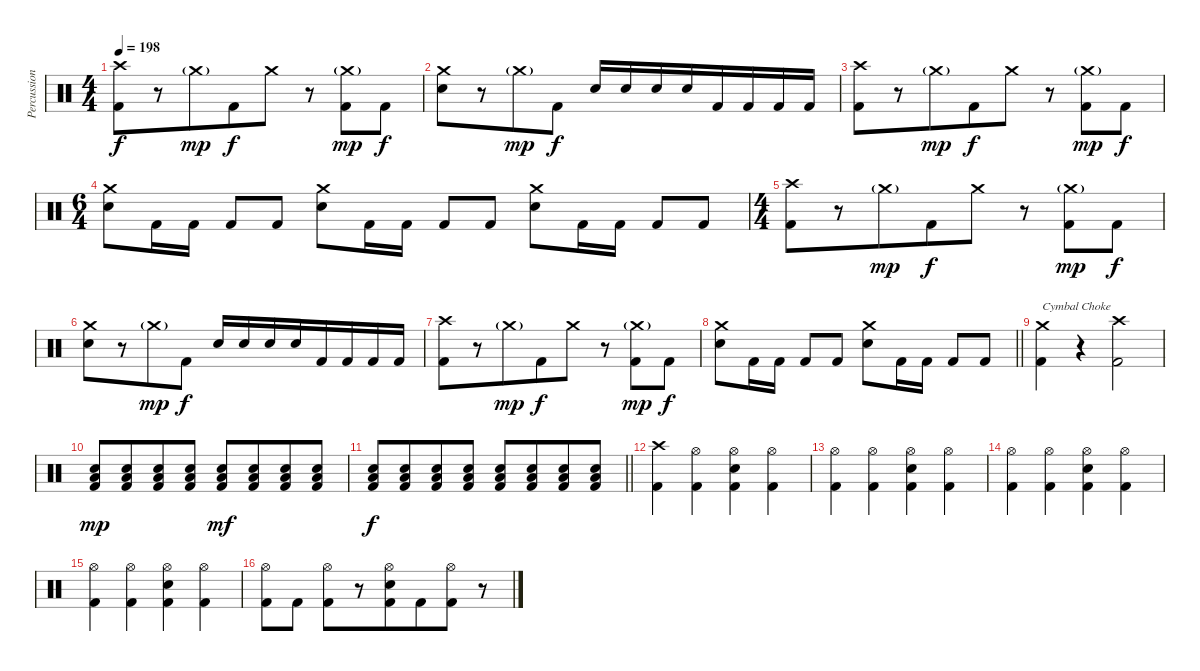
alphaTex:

\track ("Percussion" "Percussion") {instrument percussion}
\staff {score}
\articulation defaults
\ts (4 4)
\section ("" "")
\tempo 198
\clef neutral
\ks c
("Crash high (hit)" "Kick (hit) 2").8{dy f beam merge} r.8 "Crash medium (hit)"{g}.8{dy mp beam merge} "Kick (hit) 2".8{dy f beam merge} "Crash medium (hit)".8 r.8 ("Crash medium (hit)"{g} "Kick (hit) 2").8{dy mp} "Kick (hit) 2".8{dy f} |
("Crash medium (hit)" "Electric Snare (hit)").8{beam merge} r.8 "Crash medium (hit)"{g}.8{dy mp beam merge} "Kick (hit) 2".8{dy f} "Electric Snare (hit)".16 "Electric Snare (hit)".16{beam merge} "Electric Snare (hit)".16 "Electric Snare (hit)".16{beam merge} "Kick (hit) 2".16 "Kick (hit) 2".16 "Kick (hit) 2".16 "Kick (hit) 2".16 |
("Crash high (hit)" "Kick (hit) 2").8{beam merge} r.8 "Crash medium (hit)"{g}.8{dy mp beam merge} "Kick (hit) 2".8{dy f beam merge} "Crash medium (hit)".8 r.8 ("Crash medium (hit)"{g} "Kick (hit) 2").8{dy mp} "Kick (hit) 2".8{dy f} |
\ts (6 4)
("Crash medium (hit)" "Electric Snare (hit)").8 "Kick (hit) 2".16 "Kick (hit) 2".16 "Kick (hit) 2".8 "Kick (hit) 2".8 ("Crash medium (hit)" "Electric Snare (hit)").8 "Kick (hit) 2".16 "Kick (hit) 2".16 "Kick (hit) 2".8 "Kick (hit) 2".8 ("Crash medium (hit)" "Electric Snare (hit)").8 "Kick (hit) 2".16 "Kick (hit) 2".16 "Kick (hit) 2".8 "Kick (hit) 2".8 |
\ts (4 4)
("Crash high (hit)" "Kick (hit) 2").8{beam merge} r.8 "Crash medium (hit)"{g}.8{dy mp beam merge} "Kick (hit) 2".8{dy f beam merge} "Crash medium (hit)".8 r.8 ("Crash medium (hit)"{g} "Kick (hit) 2").8{dy mp} "Kick (hit) 2".8{dy f} |
("Crash medium (hit)" "Electric Snare (hit)").8{beam merge} r.8 "Crash medium (hit)"{g}.8{dy mp beam merge} "Kick (hit) 2".8{dy f} "Electric Snare (hit)".16 "Electric Snare (hit)".16{beam merge} "Electric Snare (hit)".16 "Electric Snare (hit)".16{beam merge} "Kick (hit) 2".16 "Kick (hit) 2".16 "Kick (hit) 2".16 "Kick (hit) 2".16 |
("Crash high (hit)" "Kick (hit) 2").8{beam merge} r.8 "Crash medium (hit)"{g}.8{dy mp beam merge} "Kick (hit) 2".8{dy f beam merge} "Crash medium (hit)".8 r.8 ("Crash medium (hit)"{g} "Kick (hit) 2").8{dy mp} "Kick (hit) 2".8{dy f} |
\barLineRight lightlight
("Crash medium (hit)" "Electric Snare (hit)").8 "Kick (hit) 2".16 "Kick (hit) 2".16 "Kick (hit) 2".8 "Kick (hit) 2".8 ("Crash medium (hit)" "Electric Snare (hit)").8 "Kick (hit) 2".16 "Kick (hit) 2".16 "Kick (hit) 2".8 "Kick (hit) 2".8 |
\section ("" "")
("Crash medium (hit)" "Kick (hit) 2").4{txt "Cymbal Choke" volume 0} r.4 ("Crash high (hit)" "Kick (hit) 2").2{volume 14} |
("Electric Snare (hit)" "Low Floor Tom (hit)" "Kick (hit) 2").8{dy mp beam merge} ("Electric Snare (hit)" "Low Floor Tom (hit)" "Kick (hit) 2").8{beam merge} ("Electric Snare (hit)" "Low Floor Tom (hit)" "Kick (hit) 2").8 ("Electric Snare (hit)" "Low Floor Tom (hit)" "Kick (hit) 2").8 ("Electric Snare (hit)" "Low Floor Tom (hit)" "Kick (hit) 2").8{dy mf} ("Electric Snare (hit)" "Low Floor Tom (hit)" "Kick (hit) 2").8{beam merge} ("Electric Snare (hit)" "Low Floor Tom (hit)" "Kick (hit) 2").8{beam merge} ("Electric Snare (hit)" "Low Floor Tom (hit)" "Kick (hit) 2").8 |
\barLineRight lightlight
("Electric Snare (hit)" "Low Floor Tom (hit)" "Kick (hit) 2").8{dy f beam merge} ("Electric Snare (hit)" "Low Floor Tom (hit)" "Kick (hit) 2").8{beam merge} ("Electric Snare (hit)" "Low Floor Tom (hit)" "Kick (hit) 2").8 ("Electric Snare (hit)" "Low Floor Tom (hit)" "Kick (hit) 2").8 ("Electric Snare (hit)" "Low Floor Tom (hit)" "Kick (hit) 2").8 ("Electric Snare (hit)" "Low Floor Tom (hit)" "Kick (hit) 2").8{beam merge} ("Electric Snare (hit)" "Low Floor Tom (hit)" "Kick (hit) 2").8{beam merge} ("Electric Snare (hit)" "Low Floor Tom (hit)" "Kick (hit) 2").8 |
\section ("" "")
("Crash high (hit)" "Kick (hit) 2").4{beam merge} ("Hi-Hat (open)" "Kick (hit) 2").4{beam merge} ("Hi-Hat (open)" "Electric Snare (hit)" "Kick (hit) 2").4{beam merge} ("Hi-Hat (open)" "Kick (hit) 2").4 |
("Hi-Hat (open)" "Kick (hit) 2").4{beam merge} ("Hi-Hat (open)" "Kick (hit) 2").4{beam merge} ("Hi-Hat (open)" "Electric Snare (hit)" "Kick (hit) 2").4{beam merge} ("Hi-Hat (open)" "Kick (hit) 2").4 |
("Hi-Hat (open)" "Kick (hit) 2").4{beam merge} ("Hi-Hat (open)" "Kick (hit) 2").4{beam merge} ("Hi-Hat (open)" "Electric Snare (hit)" "Kick (hit) 2").4{beam merge} ("Hi-Hat (open)" "Kick (hit) 2").4 |
("Hi-Hat (open)" "Kick (hit) 2").4{beam merge} ("Hi-Hat (open)" "Kick (hit) 2").4{beam merge} ("Hi-Hat (open)" "Electric Snare (hit)" "Kick (hit) 2").4{beam merge} ("Hi-Hat (open)" "Kick (hit) 2").4 |
("Hi-Hat (open)" "Kick (hit) 2").8 "Kick (hit) 2".8 ("Hi-Hat (open)" "Kick (hit) 2").8{beam merge} r.8{beam merge} ("Hi-Hat (open)" "Electric Snare (hit)" "Kick (hit) 2").8 "Kick (hit) 2".8{beam merge} ("Hi-Hat (open)" "Kick (hit) 2").8 r.8
